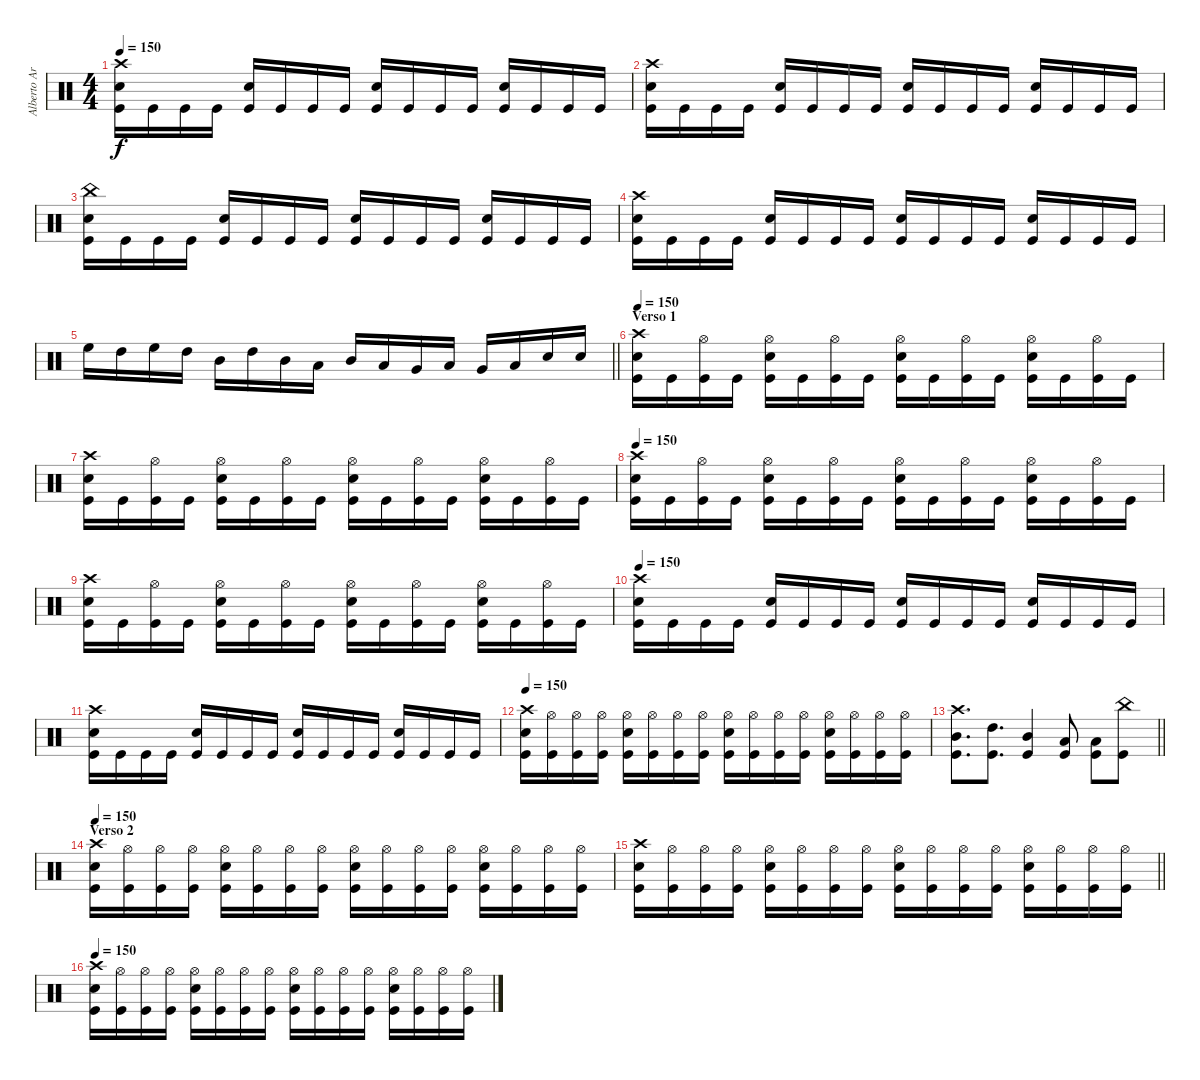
\track ("Alberto Ardines" "Alberto Ar") {instrument percussion}
\staff {score}
\articulation defaults
\ts (4 4)
\tempo 150
\clef neutral
\ks c
("Crash high (hit)" "Kick (hit)" "Snare (hit) 2").16{dy f} "Kick (hit)".16 "Kick (hit)".16 "Kick (hit)".16 ("Kick (hit)" "Snare (hit) 2").16 "Kick (hit)".16 "Kick (hit)".16 "Kick (hit)".16 ("Kick (hit)" "Snare (hit) 2").16 "Kick (hit)".16 "Kick (hit)".16 "Kick (hit)".16 ("Kick (hit)" "Snare (hit) 2").16 "Kick (hit)".16 "Kick (hit)".16 "Kick (hit)".16 |
("Crash high (hit)" "Kick (hit)" "Snare (hit) 2").16 "Kick (hit)".16 "Kick (hit)".16 "Kick (hit)".16 ("Kick (hit)" "Snare (hit) 2").16 "Kick (hit)".16 "Kick (hit)".16 "Kick (hit)".16 ("Kick (hit)" "Snare (hit) 2").16 "Kick (hit)".16 "Kick (hit)".16 "Kick (hit)".16 ("Kick (hit)" "Snare (hit) 2").16 "Kick (hit)".16 "Kick (hit)".16 "Kick (hit)".16 |
("China (hit)" "Kick (hit)" "Snare (hit) 2").16 "Kick (hit)".16 "Kick (hit)".16 "Kick (hit)".16 ("Kick (hit)" "Snare (hit) 2").16 "Kick (hit)".16 "Kick (hit)".16 "Kick (hit)".16 ("Kick (hit)" "Snare (hit) 2").16 "Kick (hit)".16 "Kick (hit)".16 "Kick (hit)".16 ("Kick (hit)" "Snare (hit) 2").16 "Kick (hit)".16 "Kick (hit)".16 "Kick (hit)".16 |
("Crash high (hit)" "Kick (hit)" "Snare (hit) 2").16 "Kick (hit)".16 "Kick (hit)".16 "Kick (hit)".16 ("Kick (hit)" "Snare (hit) 2").16 "Kick (hit)".16 "Kick (hit)".16 "Kick (hit)".16 ("Kick (hit)" "Snare (hit) 2").16 "Kick (hit)".16 "Kick (hit)".16 "Kick (hit)".16 ("Kick (hit)" "Snare (hit) 2").16 "Kick (hit)".16 "Kick (hit)".16 "Kick (hit)".16 |
\barLineRight lightlight "High Floor Tom (hit)".16 "High Tom (hit)".16 "High Floor Tom (hit)".16 "High Tom (hit)".16 "Mid Tom (hit)".16 "High Tom (hit)".16 "Mid Tom (hit)".16 "Low Tom (hit)".16 "Mid Tom (hit)".16 "Low Tom (hit)".16 "Very Low Tom (hit)".16 "Low Tom (hit)".16 "Very Low Tom (hit)".16 "Low Floor Tom (hit)".16 "Snare (hit) 2".16 "Snare (hit) 2".16
|
\section ("" "Verso 1")
\tempo 150
("Crash high (hit)" "Kick (hit)" "Snare (hit) 2").16 "Kick (hit)".16 ("Hi-Hat (open)" "Kick (hit)").16 "Kick (hit)".16 ("Hi-Hat (open)" "Kick (hit)" "Snare (hit) 2").16 "Kick (hit)".16 ("Hi-Hat (open)" "Kick (hit)").16 "Kick (hit)".16 ("Hi-Hat (open)" "Kick (hit)" "Snare (hit) 2").16 "Kick (hit)".16 ("Hi-Hat (open)" "Kick (hit)").16 "Kick (hit)".16 ("Hi-Hat (open)" "Kick (hit)" "Snare (hit) 2").16 "Kick (hit)".16 ("Hi-Hat (open)" "Kick (hit)").16 "Kick (hit)".16 |
("Crash high (hit)" "Kick (hit)" "Snare (hit) 2").16 "Kick (hit)".16 ("Hi-Hat (open)" "Kick (hit)").16 "Kick (hit)".16 ("Hi-Hat (open)" "Kick (hit)" "Snare (hit) 2").16 "Kick (hit)".16 ("Hi-Hat (open)" "Kick (hit)").16 "Kick (hit)".16 ("Hi-Hat (open)" "Kick (hit)" "Snare (hit) 2").16 "Kick (hit)".16 ("Hi-Hat (open)" "Kick (hit)").16 "Kick (hit)".16 ("Hi-Hat (open)" "Kick (hit)" "Snare (hit) 2").16 "Kick (hit)".16 ("Hi-Hat (open)" "Kick (hit)").16 "Kick (hit)".16 |
\tempo 150
("Crash high (hit)" "Kick (hit)" "Snare (hit) 2").16 "Kick (hit)".16 ("Hi-Hat (open)" "Kick (hit)").16 "Kick (hit)".16 ("Hi-Hat (open)" "Kick (hit)" "Snare (hit) 2").16 "Kick (hit)".16 ("Hi-Hat (open)" "Kick (hit)").16 "Kick (hit)".16 ("Hi-Hat (open)" "Kick (hit)" "Snare (hit) 2").16 "Kick (hit)".16 ("Hi-Hat (open)" "Kick (hit)").16 "Kick (hit)".16 ("Hi-Hat (open)" "Kick (hit)" "Snare (hit) 2").16 "Kick (hit)".16 ("Hi-Hat (open)" "Kick (hit)").16 "Kick (hit)".16 |
("Crash high (hit)" "Kick (hit)" "Snare (hit) 2").16 "Kick (hit)".16 ("Hi-Hat (open)" "Kick (hit)").16 "Kick (hit)".16 ("Hi-Hat (open)" "Kick (hit)" "Snare (hit) 2").16 "Kick (hit)".16 ("Hi-Hat (open)" "Kick (hit)").16 "Kick (hit)".16 ("Hi-Hat (open)" "Kick (hit)" "Snare (hit) 2").16 "Kick (hit)".16 ("Hi-Hat (open)" "Kick (hit)").16 "Kick (hit)".16 ("Hi-Hat (open)" "Kick (hit)" "Snare (hit) 2").16 "Kick (hit)".16 ("Hi-Hat (open)" "Kick (hit)").16 "Kick (hit)".16 |
\tempo 150
("Crash high (hit)" "Kick (hit)" "Snare (hit) 2").16 "Kick (hit)".16 "Kick (hit)".16 "Kick (hit)".16 ("Kick (hit)" "Snare (hit) 2").16 "Kick (hit)".16 "Kick (hit)".16 "Kick (hit)".16 ("Kick (hit)" "Snare (hit) 2").16 "Kick (hit)".16 "Kick (hit)".16 "Kick (hit)".16 ("Kick (hit)" "Snare (hit) 2").16 "Kick (hit)".16 "Kick (hit)".16 "Kick (hit)".16 |
("Crash high (hit)" "Kick (hit)" "Snare (hit) 2").16 "Kick (hit)".16 "Kick (hit)".16 "Kick (hit)".16 ("Kick (hit)" "Snare (hit) 2").16 "Kick (hit)".16 "Kick (hit)".16 "Kick (hit)".16 ("Kick (hit)" "Snare (hit) 2").16 "Kick (hit)".16 "Kick (hit)".16 "Kick (hit)".16 ("Kick (hit)" "Snare (hit) 2").16 "Kick (hit)".16 "Kick (hit)".16 "Kick (hit)".16 |
\tempo 150
("Crash high (hit)" "Kick (hit)" "Snare (hit) 2").16 ("Hi-Hat (open)" "Kick (hit)").16 ("Hi-Hat (open)" "Kick (hit)").16 ("Hi-Hat (open)" "Kick (hit)").16 ("Hi-Hat (open)" "Kick (hit)" "Snare (hit) 2").16 ("Hi-Hat (open)" "Kick (hit)").16 ("Hi-Hat (open)" "Kick (hit)").16 ("Hi-Hat (open)" "Kick (hit)").16 ("Hi-Hat (open)" "Kick (hit)" "Snare (hit) 2").16 ("Hi-Hat (open)" "Kick (hit)").16 ("Hi-Hat (open)" "Kick (hit)").16 ("Hi-Hat (open)" "Kick (hit)").16 ("Hi-Hat (open)" "Kick (hit)" "Snare (hit) 2").16 ("Hi-Hat (open)" "Kick (hit)").16 ("Hi-Hat (open)" "Kick (hit)").16 ("Hi-Hat (open)" "Kick (hit)").16 |
\barLineRight lightlight
("Crash high (hit)" "Kick (hit)" "Mid Tom (hit)").8{d} ("Kick (hit)" "High Tom (hit)").8{d} ("Kick (hit)" "Mid Tom (hit)").4 ("Kick (hit)" "Low Tom (hit)").8 ("Kick (hit)" "Low Floor Tom (hit)").8 ("China (hit)" "Kick (hit)").8 |
\section ("" "Verso 2")
\tempo 150
("Crash high (hit)" "Kick (hit)" "Snare (hit) 2").16 ("Hi-Hat (open)" "Kick (hit)").16 ("Hi-Hat (open)" "Kick (hit)").16 ("Hi-Hat (open)" "Kick (hit)").16 ("Hi-Hat (open)" "Kick (hit)" "Snare (hit) 2").16 ("Hi-Hat (open)" "Kick (hit)").16 ("Hi-Hat (open)" "Kick (hit)").16 ("Hi-Hat (open)" "Kick (hit)").16 ("Hi-Hat (open)" "Kick (hit)" "Snare (hit) 2").16 ("Hi-Hat (open)" "Kick (hit)").16 ("Hi-Hat (open)" "Kick (hit)").16 ("Hi-Hat (open)" "Kick (hit)").16 ("Hi-Hat (open)" "Kick (hit)" "Snare (hit) 2").16 ("Hi-Hat (open)" "Kick (hit)").16 ("Hi-Hat (open)" "Kick (hit)").16 ("Hi-Hat (open)" "Kick (hit)").16 |
\barLineRight lightlight
("Crash high (hit)" "Kick (hit)" "Snare (hit) 2").16 ("Hi-Hat (open)" "Kick (hit)").16 ("Hi-Hat (open)" "Kick (hit)").16 ("Hi-Hat (open)" "Kick (hit)").16 ("Hi-Hat (open)" "Kick (hit)" "Snare (hit) 2").16 ("Hi-Hat (open)" "Kick (hit)").16 ("Hi-Hat (open)" "Kick (hit)").16 ("Hi-Hat (open)" "Kick (hit)").16 ("Hi-Hat (open)" "Kick (hit)" "Snare (hit) 2").16 ("Hi-Hat (open)" "Kick (hit)").16 ("Hi-Hat (open)" "Kick (hit)").16 ("Hi-Hat (open)" "Kick (hit)").16 ("Hi-Hat (open)" "Kick (hit)" "Snare (hit) 2").16 ("Hi-Hat (open)" "Kick (hit)").16 ("Hi-Hat (open)" "Kick (hit)").16 ("Hi-Hat (open)" "Kick (hit)").16 |
\tempo 150
("Crash high (hit)" "Kick (hit)" "Snare (hit) 2").16 ("Hi-Hat (open)" "Kick (hit)").16 ("Hi-Hat (open)" "Kick (hit)").16 ("Hi-Hat (open)" "Kick (hit)").16 ("Hi-Hat (open)" "Kick (hit)" "Snare (hit) 2").16 ("Hi-Hat (open)" "Kick (hit)").16 ("Hi-Hat (open)" "Kick (hit)").16 ("Hi-Hat (open)" "Kick (hit)").16 ("Hi-Hat (open)" "Kick (hit)" "Snare (hit) 2").16 ("Hi-Hat (open)" "Kick (hit)").16 ("Hi-Hat (open)" "Kick (hit)").16 ("Hi-Hat (open)" "Kick (hit)").16 ("Hi-Hat (open)" "Kick (hit)" "Snare (hit) 2").16 ("Hi-Hat (open)" "Kick (hit)").16 ("Hi-Hat (open)" "Kick (hit)").16 ("Hi-Hat (open)" "Kick (hit)").16
